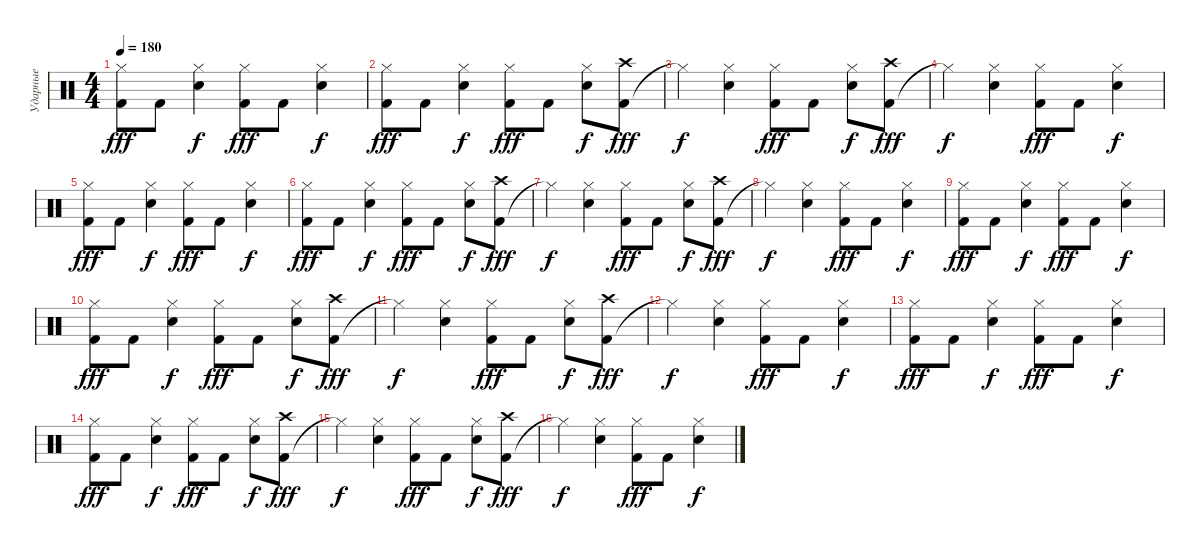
\track ("Ударные" "Ударные") {instrument percussion}
\staff
\articulation defaults
\ts (4 4)
\tempo 180
\clef neutral
\ks c
("Kick (hit) 2" "Hi-Hat (closed)").8{dy fff} "Kick (hit) 2".8 ("Snare (hit) 2" "Hi-Hat (closed)").4{dy f} ("Kick (hit) 2" "Hi-Hat (closed)").8{dy fff} "Kick (hit) 2".8 ("Snare (hit) 2" "Hi-Hat (closed)").4{dy f} |
("Kick (hit) 2" "Hi-Hat (closed)").8{dy fff} "Kick (hit) 2".8 ("Snare (hit) 2" "Hi-Hat (closed)").4{dy f} ("Kick (hit) 2" "Hi-Hat (closed)").8{dy fff} "Kick (hit) 2".8 ("Snare (hit) 2" "Hi-Hat (closed)").8{dy f} ("Kick (hit) 2" "Crash high (hit)").8{dy fff} |
"Hi-Hat (closed)"{t}.4{dy f} ("Snare (hit) 2" "Hi-Hat (closed)").4 ("Kick (hit) 2" "Hi-Hat (closed)").8{dy fff} "Kick (hit) 2".8 ("Snare (hit) 2" "Hi-Hat (closed)").8{dy f} ("Kick (hit) 2" "Crash high (hit)").8{dy fff} |
"Hi-Hat (closed)"{t}.4{dy f} ("Snare (hit) 2" "Hi-Hat (closed)").4 ("Kick (hit) 2" "Hi-Hat (closed)").8{dy fff} "Kick (hit) 2".8 ("Snare (hit) 2" "Hi-Hat (closed)").4{dy f} |
("Kick (hit) 2" "Hi-Hat (closed)").8{dy fff} "Kick (hit) 2".8 ("Snare (hit) 2" "Hi-Hat (closed)").4{dy f} ("Kick (hit) 2" "Hi-Hat (closed)").8{dy fff} "Kick (hit) 2".8 ("Snare (hit) 2" "Hi-Hat (closed)").4{dy f} |
("Kick (hit) 2" "Hi-Hat (closed)").8{dy fff} "Kick (hit) 2".8 ("Snare (hit) 2" "Hi-Hat (closed)").4{dy f} ("Kick (hit) 2" "Hi-Hat (closed)").8{dy fff} "Kick (hit) 2".8 ("Snare (hit) 2" "Hi-Hat (closed)").8{dy f} ("Kick (hit) 2" "Crash high (hit)").8{dy fff} |
"Hi-Hat (closed)"{t}.4{dy f} ("Snare (hit) 2" "Hi-Hat (closed)").4 ("Kick (hit) 2" "Hi-Hat (closed)").8{dy fff} "Kick (hit) 2".8 ("Snare (hit) 2" "Hi-Hat (closed)").8{dy f} ("Kick (hit) 2" "Crash high (hit)").8{dy fff} |
"Hi-Hat (closed)"{t}.4{dy f} ("Snare (hit) 2" "Hi-Hat (closed)").4 ("Kick (hit) 2" "Hi-Hat (closed)").8{dy fff} "Kick (hit) 2".8 ("Snare (hit) 2" "Hi-Hat (closed)").4{dy f} |
("Kick (hit) 2" "Hi-Hat (closed)").8{dy fff} "Kick (hit) 2".8 ("Snare (hit) 2" "Hi-Hat (closed)").4{dy f} ("Kick (hit) 2" "Hi-Hat (closed)").8{dy fff} "Kick (hit) 2".8 ("Snare (hit) 2" "Hi-Hat (closed)").4{dy f} |
("Kick (hit) 2" "Hi-Hat (closed)").8{dy fff} "Kick (hit) 2".8 ("Snare (hit) 2" "Hi-Hat (closed)").4{dy f} ("Kick (hit) 2" "Hi-Hat (closed)").8{dy fff} "Kick (hit) 2".8 ("Snare (hit) 2" "Hi-Hat (closed)").8{dy f} ("Kick (hit) 2" "Crash high (hit)").8{dy fff} |
"Hi-Hat (closed)"{t}.4{dy f} ("Snare (hit) 2" "Hi-Hat (closed)").4 ("Kick (hit) 2" "Hi-Hat (closed)").8{dy fff} "Kick (hit) 2".8 ("Snare (hit) 2" "Hi-Hat (closed)").8{dy f} ("Kick (hit) 2" "Crash high (hit)").8{dy fff} |
"Hi-Hat (closed)"{t}.4{dy f} ("Snare (hit) 2" "Hi-Hat (closed)").4 ("Kick (hit) 2" "Hi-Hat (closed)").8{dy fff} "Kick (hit) 2".8 ("Snare (hit) 2" "Hi-Hat (closed)").4{dy f} |
("Kick (hit) 2" "Hi-Hat (closed)").8{dy fff} "Kick (hit) 2".8 ("Snare (hit) 2" "Hi-Hat (closed)").4{dy f} ("Kick (hit) 2" "Hi-Hat (closed)").8{dy fff} "Kick (hit) 2".8 ("Snare (hit) 2" "Hi-Hat (closed)").4{dy f} |
("Kick (hit) 2" "Hi-Hat (closed)").8{dy fff} "Kick (hit) 2".8 ("Snare (hit) 2" "Hi-Hat (closed)").4{dy f} ("Kick (hit) 2" "Hi-Hat (closed)").8{dy fff} "Kick (hit) 2".8 ("Snare (hit) 2" "Hi-Hat (closed)").8{dy f} ("Kick (hit) 2" "Crash high (hit)").8{dy fff} |
"Hi-Hat (closed)"{t}.4{dy f} ("Snare (hit) 2" "Hi-Hat (closed)").4 ("Kick (hit) 2" "Hi-Hat (closed)").8{dy fff} "Kick (hit) 2".8 ("Snare (hit) 2" "Hi-Hat (closed)").8{dy f} ("Kick (hit) 2" "Crash high (hit)").8{dy fff} |
"Hi-Hat (closed)"{t}.4{dy f} ("Snare (hit) 2" "Hi-Hat (closed)").4 ("Kick (hit) 2" "Hi-Hat (closed)").8{dy fff} "Kick (hit) 2".8 ("Snare (hit) 2" "Hi-Hat (closed)").4{dy f}
